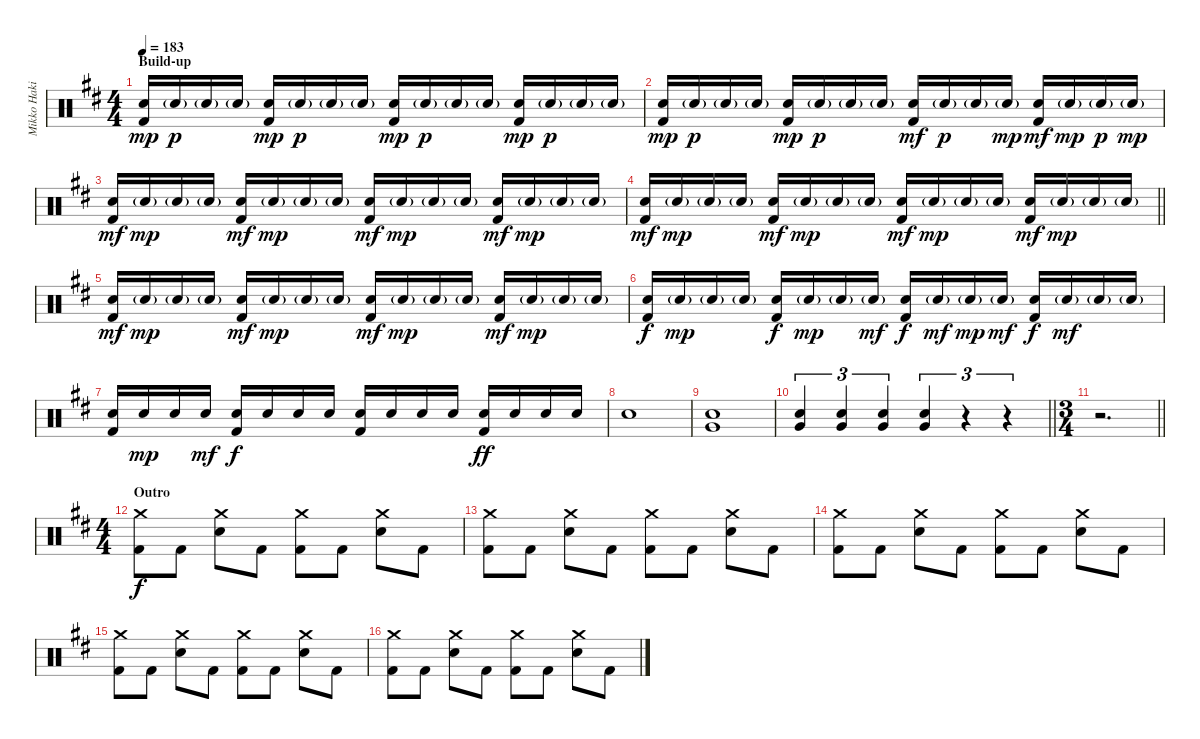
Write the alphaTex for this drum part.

\track ("Mikko Hakila - drums" "Mikko Haki") {instrument percussion}
\staff {score}
\articulation defaults
\ts (4 4)
\section ("" "Build-up")
\tempo 183
\clef neutral
\ks bminor
("Electric Snare (hit)" "Kick (hit) 2").16{dy mp} "Electric Snare (hit)"{g}.16{dy p} "Electric Snare (hit)"{g}.16 "Electric Snare (hit)"{g}.16 ("Electric Snare (hit)" "Kick (hit) 2").16{dy mp} "Electric Snare (hit)"{g}.16{dy p} "Electric Snare (hit)"{g}.16 "Electric Snare (hit)"{g}.16 ("Electric Snare (hit)" "Kick (hit) 2").16{dy mp} "Electric Snare (hit)"{g}.16{dy p} "Electric Snare (hit)"{g}.16 "Electric Snare (hit)"{g}.16 ("Electric Snare (hit)" "Kick (hit) 2").16{dy mp} "Electric Snare (hit)"{g}.16{dy p} "Electric Snare (hit)"{g}.16 "Electric Snare (hit)"{g}.16 |
("Electric Snare (hit)" "Kick (hit) 2").16{dy mp} "Electric Snare (hit)"{g}.16{dy p} "Electric Snare (hit)"{g}.16 "Electric Snare (hit)"{g}.16 ("Electric Snare (hit)" "Kick (hit) 2").16{dy mp} "Electric Snare (hit)"{g}.16{dy p} "Electric Snare (hit)"{g}.16 "Electric Snare (hit)"{g}.16 ("Electric Snare (hit)" "Kick (hit) 2").16{dy mf} "Electric Snare (hit)"{g}.16{dy p} "Electric Snare (hit)"{g}.16 "Electric Snare (hit)"{g}.16{dy mp} ("Electric Snare (hit)" "Kick (hit) 2").16{dy mf} "Electric Snare (hit)"{g}.16{dy mp} "Electric Snare (hit)"{g}.16{dy p} "Electric Snare (hit)"{g}.16{dy mp} |
("Electric Snare (hit)" "Kick (hit) 2").16{dy mf} "Electric Snare (hit)"{g}.16{dy mp} "Electric Snare (hit)"{g}.16 "Electric Snare (hit)"{g}.16 ("Electric Snare (hit)" "Kick (hit) 2").16{dy mf} "Electric Snare (hit)"{g}.16{dy mp} "Electric Snare (hit)"{g}.16 "Electric Snare (hit)"{g}.16 ("Electric Snare (hit)" "Kick (hit) 2").16{dy mf} "Electric Snare (hit)"{g}.16{dy mp} "Electric Snare (hit)"{g}.16 "Electric Snare (hit)"{g}.16 ("Electric Snare (hit)" "Kick (hit) 2").16{dy mf} "Electric Snare (hit)"{g}.16{dy mp} "Electric Snare (hit)"{g}.16 "Electric Snare (hit)"{g}.16 |
\barLineRight lightlight
("Electric Snare (hit)" "Kick (hit) 2").16{dy mf} "Electric Snare (hit)"{g}.16{dy mp} "Electric Snare (hit)"{g}.16 "Electric Snare (hit)"{g}.16 ("Electric Snare (hit)" "Kick (hit) 2").16{dy mf} "Electric Snare (hit)"{g}.16{dy mp} "Electric Snare (hit)"{g}.16 "Electric Snare (hit)"{g}.16 ("Electric Snare (hit)" "Kick (hit) 2").16{dy mf} "Electric Snare (hit)"{g}.16{dy mp} "Electric Snare (hit)"{g}.16 "Electric Snare (hit)"{g}.16 ("Electric Snare (hit)" "Kick (hit) 2").16{dy mf} "Electric Snare (hit)"{g}.16{dy mp} "Electric Snare (hit)"{g}.16 "Electric Snare (hit)"{g}.16 |
("Electric Snare (hit)" "Kick (hit) 2").16{dy mf} "Electric Snare (hit)"{g}.16{dy mp} "Electric Snare (hit)"{g}.16 "Electric Snare (hit)"{g}.16 ("Electric Snare (hit)" "Kick (hit) 2").16{dy mf} "Electric Snare (hit)"{g}.16{dy mp} "Electric Snare (hit)"{g}.16 "Electric Snare (hit)"{g}.16 ("Electric Snare (hit)" "Kick (hit) 2").16{dy mf} "Electric Snare (hit)"{g}.16{dy mp} "Electric Snare (hit)"{g}.16 "Electric Snare (hit)"{g}.16 ("Electric Snare (hit)" "Kick (hit) 2").16{dy mf} "Electric Snare (hit)"{g}.16{dy mp} "Electric Snare (hit)"{g}.16 "Electric Snare (hit)"{g}.16 |
("Electric Snare (hit)" "Kick (hit) 2").16{dy f} "Electric Snare (hit)"{g}.16{dy mp} "Electric Snare (hit)"{g}.16 "Electric Snare (hit)"{g}.16 ("Electric Snare (hit)" "Kick (hit) 2").16{dy f} "Electric Snare (hit)"{g}.16{dy mp} "Electric Snare (hit)"{g}.16 "Electric Snare (hit)"{g}.16{dy mf} ("Electric Snare (hit)" "Kick (hit) 2").16{dy f} "Electric Snare (hit)"{g}.16{dy mf} "Electric Snare (hit)"{g}.16{dy mp} "Electric Snare (hit)"{g}.16{dy mf} ("Electric Snare (hit)" "Kick (hit) 2").16{dy f} "Electric Snare (hit)"{g}.16{dy mf} "Electric Snare (hit)"{g}.16 "Electric Snare (hit)"{g}.16 |
("Electric Snare (hit)" "Kick (hit) 2").16 "Electric Snare (hit)".16{dy mp} "Electric Snare (hit)".16 "Electric Snare (hit)".16{dy mf} ("Electric Snare (hit)" "Kick (hit) 2").16{dy f} "Electric Snare (hit)".16 "Electric Snare (hit)".16 "Electric Snare (hit)".16 ("Electric Snare (hit)" "Kick (hit) 2").16 "Electric Snare (hit)".16 "Electric Snare (hit)".16 "Electric Snare (hit)".16 ("Electric Snare (hit)" "Kick (hit) 2").16{dy ff} "Electric Snare (hit)".16 "Electric Snare (hit)".16 "Electric Snare (hit)".16 |
"Electric Snare (hit)".1 |
("Electric Snare (hit)" "Very Low Tom (hit)").1 |
\barLineRight lightlight
("Electric Snare (hit)" "Very Low Tom (hit)").4{tu (3 2)} ("Electric Snare (hit)" "Very Low Tom (hit)").4{tu (3 2)} ("Electric Snare (hit)" "Very Low Tom (hit)").4{tu (3 2)} ("Electric Snare (hit)" "Very Low Tom (hit)").4{tu (3 2)} r.4{tu (3 2)} r.4{tu (3 2)} |
\ts (3 4)
\barLineRight lightlight
r.2{d} |
\ts (4 4)
\section ("" "Outro")
("Crash medium (hit)" "Kick (hit) 2").8{dy f} "Kick (hit) 2".8 ("Crash medium (hit)" "Electric Snare (hit)").8 "Kick (hit) 2".8 ("Crash medium (hit)" "Kick (hit) 2").8 "Kick (hit) 2".8 ("Crash medium (hit)" "Electric Snare (hit)").8 "Kick (hit) 2".8 |
("Crash medium (hit)" "Kick (hit) 2").8 "Kick (hit) 2".8 ("Crash medium (hit)" "Electric Snare (hit)").8 "Kick (hit) 2".8 ("Crash medium (hit)" "Kick (hit) 2").8 "Kick (hit) 2".8 ("Crash medium (hit)" "Electric Snare (hit)").8 "Kick (hit) 2".8 |
("Crash medium (hit)" "Kick (hit) 2").8 "Kick (hit) 2".8 ("Crash medium (hit)" "Electric Snare (hit)").8 "Kick (hit) 2".8 ("Crash medium (hit)" "Kick (hit) 2").8 "Kick (hit) 2".8 ("Crash medium (hit)" "Electric Snare (hit)").8 "Kick (hit) 2".8 |
("Crash medium (hit)" "Kick (hit) 2").8 "Kick (hit) 2".8 ("Crash medium (hit)" "Electric Snare (hit)").8 "Kick (hit) 2".8 ("Crash medium (hit)" "Kick (hit) 2").8 "Kick (hit) 2".8 ("Crash medium (hit)" "Electric Snare (hit)").8 "Kick (hit) 2".8 |
("Crash medium (hit)" "Kick (hit) 2").8 "Kick (hit) 2".8 ("Crash medium (hit)" "Electric Snare (hit)").8 "Kick (hit) 2".8 ("Crash medium (hit)" "Kick (hit) 2").8 "Kick (hit) 2".8 ("Crash medium (hit)" "Electric Snare (hit)").8 "Kick (hit) 2".8
